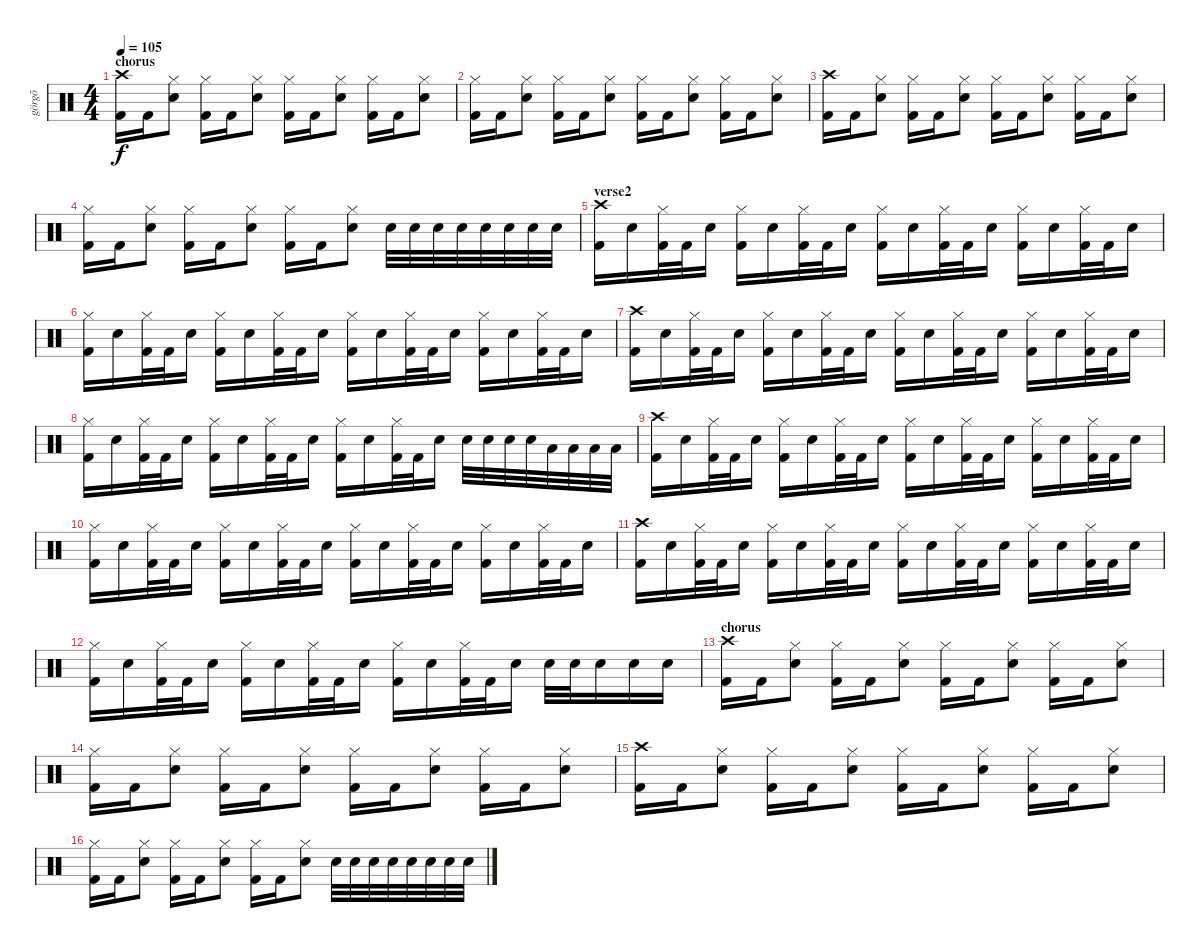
\track ("görgõ" "görgõ") {instrument percussion}
\staff {score}
\articulation defaults
\ts (4 4)
\section ("" "chorus")
\tempo 105
\clef neutral
\ks c
("Crash high (hit)" "Kick (hit) 2").16{dy f} "Kick (hit) 2".16 ("Hi-Hat (closed)" "Snare (hit) 2").8 ("Hi-Hat (closed)" "Kick (hit) 2").16 "Kick (hit) 2".16 ("Hi-Hat (closed)" "Snare (hit) 2").8 ("Hi-Hat (closed)" "Kick (hit) 2").16 "Kick (hit) 2".16 ("Hi-Hat (closed)" "Snare (hit) 2").8 ("Hi-Hat (closed)" "Kick (hit) 2").16 "Kick (hit) 2".16 ("Hi-Hat (closed)" "Snare (hit) 2").8 |
("Hi-Hat (closed)" "Kick (hit) 2").16 "Kick (hit) 2".16 ("Hi-Hat (closed)" "Snare (hit) 2").8 ("Hi-Hat (closed)" "Kick (hit) 2").16 "Kick (hit) 2".16 ("Hi-Hat (closed)" "Snare (hit) 2").8 ("Hi-Hat (closed)" "Kick (hit) 2").16 "Kick (hit) 2".16 ("Hi-Hat (closed)" "Snare (hit) 2").8 ("Hi-Hat (closed)" "Kick (hit) 2").16 "Kick (hit) 2".16 ("Hi-Hat (closed)" "Snare (hit) 2").8 |
("Crash high (hit)" "Kick (hit) 2").16 "Kick (hit) 2".16 ("Hi-Hat (closed)" "Snare (hit) 2").8 ("Hi-Hat (closed)" "Kick (hit) 2").16 "Kick (hit) 2".16 ("Hi-Hat (closed)" "Snare (hit) 2").8 ("Hi-Hat (closed)" "Kick (hit) 2").16 "Kick (hit) 2".16 ("Hi-Hat (closed)" "Snare (hit) 2").8 ("Hi-Hat (closed)" "Kick (hit) 2").16 "Kick (hit) 2".16 ("Hi-Hat (closed)" "Snare (hit) 2").8 |
("Hi-Hat (closed)" "Kick (hit) 2").16 "Kick (hit) 2".16 ("Hi-Hat (closed)" "Snare (hit) 2").8 ("Hi-Hat (closed)" "Kick (hit) 2").16 "Kick (hit) 2".16 ("Hi-Hat (closed)" "Snare (hit) 2").8 ("Hi-Hat (closed)" "Kick (hit) 2").16 "Kick (hit) 2".16 ("Hi-Hat (closed)" "Snare (hit) 2").8 "Snare (hit) 2".32 "Snare (hit) 2".32 "Snare (hit) 2".32 "Snare (hit) 2".32 "Snare (hit) 2".32 "Snare (hit) 2".32 "Snare (hit) 2".32 "Snare (hit) 2".32 |
\section ("" "verse2")
("Crash high (hit)" "Kick (hit) 2").16 "Snare (hit) 2".16 ("Hi-Hat (closed)" "Kick (hit) 2").32 "Kick (hit) 2".32 "Snare (hit) 2".16 ("Hi-Hat (closed)" "Kick (hit) 2").16 "Snare (hit) 2".16 ("Hi-Hat (closed)" "Kick (hit) 2").32 "Kick (hit) 2".32 "Snare (hit) 2".16 ("Hi-Hat (closed)" "Kick (hit) 2").16 "Snare (hit) 2".16 ("Hi-Hat (closed)" "Kick (hit) 2").32 "Kick (hit) 2".32 "Snare (hit) 2".16 ("Hi-Hat (closed)" "Kick (hit) 2").16 "Snare (hit) 2".16 ("Hi-Hat (closed)" "Kick (hit) 2").32 "Kick (hit) 2".32 "Snare (hit) 2".16 |
("Hi-Hat (closed)" "Kick (hit) 2").16 "Snare (hit) 2".16 ("Hi-Hat (closed)" "Kick (hit) 2").32 "Kick (hit) 2".32 "Snare (hit) 2".16 ("Hi-Hat (closed)" "Kick (hit) 2").16 "Snare (hit) 2".16 ("Hi-Hat (closed)" "Kick (hit) 2").32 "Kick (hit) 2".32 "Snare (hit) 2".16 ("Hi-Hat (closed)" "Kick (hit) 2").16 "Snare (hit) 2".16 ("Hi-Hat (closed)" "Kick (hit) 2").32 "Kick (hit) 2".32 "Snare (hit) 2".16 ("Hi-Hat (closed)" "Kick (hit) 2").16 "Snare (hit) 2".16 ("Hi-Hat (closed)" "Kick (hit) 2").32 "Kick (hit) 2".32 "Snare (hit) 2".16 |
("Crash high (hit)" "Kick (hit) 2").16 "Snare (hit) 2".16 ("Hi-Hat (closed)" "Kick (hit) 2").32 "Kick (hit) 2".32 "Snare (hit) 2".16 ("Hi-Hat (closed)" "Kick (hit) 2").16 "Snare (hit) 2".16 ("Hi-Hat (closed)" "Kick (hit) 2").32 "Kick (hit) 2".32 "Snare (hit) 2".16 ("Hi-Hat (closed)" "Kick (hit) 2").16 "Snare (hit) 2".16 ("Hi-Hat (closed)" "Kick (hit) 2").32 "Kick (hit) 2".32 "Snare (hit) 2".16 ("Hi-Hat (closed)" "Kick (hit) 2").16 "Snare (hit) 2".16 ("Hi-Hat (closed)" "Kick (hit) 2").32 "Kick (hit) 2".32 "Snare (hit) 2".16 |
("Hi-Hat (closed)" "Kick (hit) 2").16 "Snare (hit) 2".16 ("Hi-Hat (closed)" "Kick (hit) 2").32 "Kick (hit) 2".32 "Snare (hit) 2".16 ("Hi-Hat (closed)" "Kick (hit) 2").16 "Snare (hit) 2".16 ("Hi-Hat (closed)" "Kick (hit) 2").32 "Kick (hit) 2".32 "Snare (hit) 2".16 ("Hi-Hat (closed)" "Kick (hit) 2").16 "Snare (hit) 2".16 ("Hi-Hat (closed)" "Kick (hit) 2").32 "Kick (hit) 2".32 "Snare (hit) 2".16 "Snare (hit) 2".32 "Snare (hit) 2".32 "Snare (hit) 2".32 "Snare (hit) 2".32 "Low Tom (hit)".32 "Low Tom (hit)".32 "Low Tom (hit)".32 "Low Tom (hit)".32 |
("Crash high (hit)" "Kick (hit) 2").16 "Snare (hit) 2".16 ("Hi-Hat (closed)" "Kick (hit) 2").32 "Kick (hit) 2".32 "Snare (hit) 2".16 ("Hi-Hat (closed)" "Kick (hit) 2").16 "Snare (hit) 2".16 ("Hi-Hat (closed)" "Kick (hit) 2").32 "Kick (hit) 2".32 "Snare (hit) 2".16 ("Hi-Hat (closed)" "Kick (hit) 2").16 "Snare (hit) 2".16 ("Hi-Hat (closed)" "Kick (hit) 2").32 "Kick (hit) 2".32 "Snare (hit) 2".16 ("Hi-Hat (closed)" "Kick (hit) 2").16 "Snare (hit) 2".16 ("Hi-Hat (closed)" "Kick (hit) 2").32 "Kick (hit) 2".32 "Snare (hit) 2".16 |
("Hi-Hat (closed)" "Kick (hit) 2").16 "Snare (hit) 2".16 ("Hi-Hat (closed)" "Kick (hit) 2").32 "Kick (hit) 2".32 "Snare (hit) 2".16 ("Hi-Hat (closed)" "Kick (hit) 2").16 "Snare (hit) 2".16 ("Hi-Hat (closed)" "Kick (hit) 2").32 "Kick (hit) 2".32 "Snare (hit) 2".16 ("Hi-Hat (closed)" "Kick (hit) 2").16 "Snare (hit) 2".16 ("Hi-Hat (closed)" "Kick (hit) 2").32 "Kick (hit) 2".32 "Snare (hit) 2".16 ("Hi-Hat (closed)" "Kick (hit) 2").16 "Snare (hit) 2".16 ("Hi-Hat (closed)" "Kick (hit) 2").32 "Kick (hit) 2".32 "Snare (hit) 2".16 |
("Crash high (hit)" "Kick (hit) 2").16 "Snare (hit) 2".16 ("Hi-Hat (closed)" "Kick (hit) 2").32 "Kick (hit) 2".32 "Snare (hit) 2".16 ("Hi-Hat (closed)" "Kick (hit) 2").16 "Snare (hit) 2".16 ("Hi-Hat (closed)" "Kick (hit) 2").32 "Kick (hit) 2".32 "Snare (hit) 2".16 ("Hi-Hat (closed)" "Kick (hit) 2").16 "Snare (hit) 2".16 ("Hi-Hat (closed)" "Kick (hit) 2").32 "Kick (hit) 2".32 "Snare (hit) 2".16 ("Hi-Hat (closed)" "Kick (hit) 2").16 "Snare (hit) 2".16 ("Hi-Hat (closed)" "Kick (hit) 2").32 "Kick (hit) 2".32 "Snare (hit) 2".16 |
("Hi-Hat (closed)" "Kick (hit) 2").16 "Snare (hit) 2".16 ("Hi-Hat (closed)" "Kick (hit) 2").32 "Kick (hit) 2".32 "Snare (hit) 2".16 ("Hi-Hat (closed)" "Kick (hit) 2").16 "Snare (hit) 2".16 ("Hi-Hat (closed)" "Kick (hit) 2").32 "Kick (hit) 2".32 "Snare (hit) 2".16 ("Hi-Hat (closed)" "Kick (hit) 2").16 "Snare (hit) 2".16 ("Hi-Hat (closed)" "Kick (hit) 2").32 "Kick (hit) 2".32 "Snare (hit) 2".16 "Snare (hit) 2".32 "Snare (hit) 2".32 "Snare (hit) 2".16 "Snare (hit) 2".16 "Snare (hit) 2".16 |
\section ("" "chorus")
("Crash high (hit)" "Kick (hit) 2").16 "Kick (hit) 2".16 ("Hi-Hat (closed)" "Snare (hit) 2").8 ("Hi-Hat (closed)" "Kick (hit) 2").16 "Kick (hit) 2".16 ("Hi-Hat (closed)" "Snare (hit) 2").8 ("Hi-Hat (closed)" "Kick (hit) 2").16 "Kick (hit) 2".16 ("Hi-Hat (closed)" "Snare (hit) 2").8 ("Hi-Hat (closed)" "Kick (hit) 2").16 "Kick (hit) 2".16 ("Hi-Hat (closed)" "Snare (hit) 2").8 |
("Hi-Hat (closed)" "Kick (hit) 2").16 "Kick (hit) 2".16 ("Hi-Hat (closed)" "Snare (hit) 2").8 ("Hi-Hat (closed)" "Kick (hit) 2").16 "Kick (hit) 2".16 ("Hi-Hat (closed)" "Snare (hit) 2").8 ("Hi-Hat (closed)" "Kick (hit) 2").16 "Kick (hit) 2".16 ("Hi-Hat (closed)" "Snare (hit) 2").8 ("Hi-Hat (closed)" "Kick (hit) 2").16 "Kick (hit) 2".16 ("Hi-Hat (closed)" "Snare (hit) 2").8 |
("Crash high (hit)" "Kick (hit) 2").16 "Kick (hit) 2".16 ("Hi-Hat (closed)" "Snare (hit) 2").8 ("Hi-Hat (closed)" "Kick (hit) 2").16 "Kick (hit) 2".16 ("Hi-Hat (closed)" "Snare (hit) 2").8 ("Hi-Hat (closed)" "Kick (hit) 2").16 "Kick (hit) 2".16 ("Hi-Hat (closed)" "Snare (hit) 2").8 ("Hi-Hat (closed)" "Kick (hit) 2").16 "Kick (hit) 2".16 ("Hi-Hat (closed)" "Snare (hit) 2").8 |
("Hi-Hat (closed)" "Kick (hit) 2").16 "Kick (hit) 2".16 ("Hi-Hat (closed)" "Snare (hit) 2").8 ("Hi-Hat (closed)" "Kick (hit) 2").16 "Kick (hit) 2".16 ("Hi-Hat (closed)" "Snare (hit) 2").8 ("Hi-Hat (closed)" "Kick (hit) 2").16 "Kick (hit) 2".16 ("Hi-Hat (closed)" "Snare (hit) 2").8 "Snare (hit) 2".32 "Snare (hit) 2".32 "Snare (hit) 2".32 "Snare (hit) 2".32 "Snare (hit) 2".32 "Snare (hit) 2".32 "Snare (hit) 2".32 "Snare (hit) 2".32
